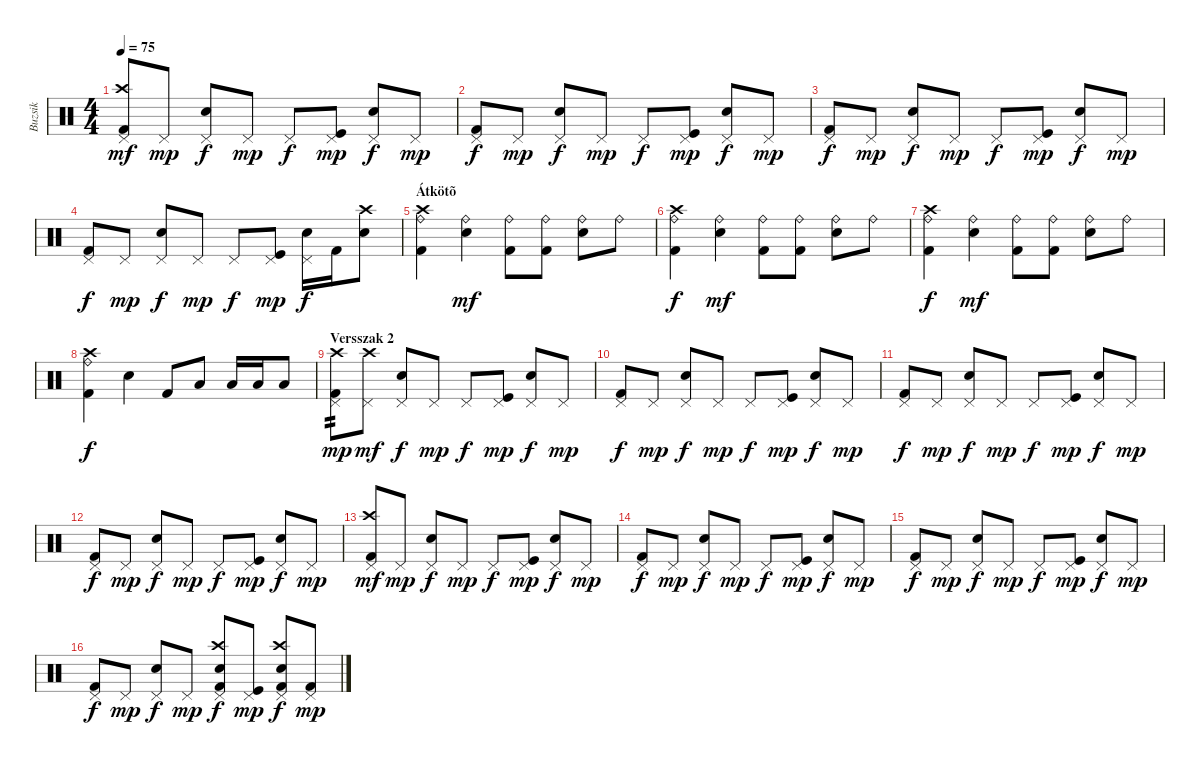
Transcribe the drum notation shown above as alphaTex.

\track ("Buzsik" "Buzsik") {instrument percussion}
\staff {score}
\articulation defaults
\ts (4 4)
\tempo 75
\clef neutral
\ks c
("Pedal Hi-Hat (hit)" "Crash high (hit)" "Kick (hit) 2").8{dy mf} "Pedal Hi-Hat (hit)".8{dy mp} ("Pedal Hi-Hat (hit)" "Snare (hit) 2").8{dy f} "Pedal Hi-Hat (hit)".8{dy mp} "Pedal Hi-Hat (hit)".8{dy f} ("Pedal Hi-Hat (hit)" "Kick (hit)").8{dy mp} ("Pedal Hi-Hat (hit)" "Snare (hit) 2").8{dy f} "Pedal Hi-Hat (hit)".8{dy mp} |
("Pedal Hi-Hat (hit)" "Kick (hit) 2").8{dy f} "Pedal Hi-Hat (hit)".8{dy mp} ("Pedal Hi-Hat (hit)" "Snare (hit) 2").8{dy f} "Pedal Hi-Hat (hit)".8{dy mp} "Pedal Hi-Hat (hit)".8{dy f} ("Pedal Hi-Hat (hit)" "Kick (hit)").8{dy mp} ("Pedal Hi-Hat (hit)" "Snare (hit) 2").8{dy f} "Pedal Hi-Hat (hit)".8{dy mp} |
("Pedal Hi-Hat (hit)" "Kick (hit) 2").8{dy f} "Pedal Hi-Hat (hit)".8{dy mp} ("Pedal Hi-Hat (hit)" "Snare (hit) 2").8{dy f} "Pedal Hi-Hat (hit)".8{dy mp} "Pedal Hi-Hat (hit)".8{dy f} ("Pedal Hi-Hat (hit)" "Kick (hit)").8{dy mp} ("Pedal Hi-Hat (hit)" "Snare (hit) 2").8{dy f} "Pedal Hi-Hat (hit)".8{dy mp} |
("Pedal Hi-Hat (hit)" "Kick (hit) 2").8{dy f} "Pedal Hi-Hat (hit)".8{dy mp} ("Pedal Hi-Hat (hit)" "Snare (hit) 2").8{dy f} "Pedal Hi-Hat (hit)".8{dy mp} "Pedal Hi-Hat (hit)".8{dy f} ("Pedal Hi-Hat (hit)" "Kick (hit)").8{dy mp} ("Pedal Hi-Hat (hit)" "Snare (hit) 2").16{dy f} "Kick (hit) 2".16 ("Crash high (hit)" "Snare (hit) 2").8 |
\section ("" "Átkötõ")
("Crash high (hit)" "Ride (bell)" "Kick (hit) 2").4 ("Ride (bell)" "Snare (hit) 2").4{dy mf} ("Ride (bell)" "Kick (hit) 2").8 ("Ride (bell)" "Kick (hit) 2").8 ("Ride (bell)" "Snare (hit) 2").8 "Ride (bell)".8 |
("Crash high (hit)" "Ride (bell)" "Kick (hit) 2").4{dy f} ("Ride (bell)" "Snare (hit) 2").4{dy mf} ("Ride (bell)" "Kick (hit) 2").8 ("Ride (bell)" "Kick (hit) 2").8 ("Ride (bell)" "Snare (hit) 2").8 "Ride (bell)".8 |
("Crash high (hit)" "Ride (bell)" "Kick (hit) 2").4{dy f} ("Ride (bell)" "Snare (hit) 2").4{dy mf} ("Ride (bell)" "Kick (hit) 2").8 ("Ride (bell)" "Kick (hit) 2").8 ("Ride (bell)" "Snare (hit) 2").8 "Ride (bell)".8 |
("Crash high (hit)" "Ride (bell)" "Kick (hit) 2").4{dy f} "Snare (hit) 2".4 "Kick (hit) 2".8 "Low Floor Tom (hit)".8 "Low Floor Tom (hit)".16 "Low Floor Tom (hit)".16 "Low Floor Tom (hit)".8 |
\section ("" "Versszak 2")
("Pedal Hi-Hat (hit)" "Crash high (hit)" "Kick (hit) 2").8{tp 2 dy mp} ("Pedal Hi-Hat (hit)" "Crash high (hit)").8{dy mf} ("Pedal Hi-Hat (hit)" "Snare (hit) 2").8{dy f} "Pedal Hi-Hat (hit)".8{dy mp} "Pedal Hi-Hat (hit)".8{dy f} ("Pedal Hi-Hat (hit)" "Kick (hit)").8{dy mp} ("Pedal Hi-Hat (hit)" "Snare (hit) 2").8{dy f} "Pedal Hi-Hat (hit)".8{dy mp} |
("Pedal Hi-Hat (hit)" "Kick (hit) 2").8{dy f} "Pedal Hi-Hat (hit)".8{dy mp} ("Pedal Hi-Hat (hit)" "Snare (hit) 2").8{dy f} "Pedal Hi-Hat (hit)".8{dy mp} "Pedal Hi-Hat (hit)".8{dy f} ("Pedal Hi-Hat (hit)" "Kick (hit)").8{dy mp} ("Pedal Hi-Hat (hit)" "Snare (hit) 2").8{dy f} "Pedal Hi-Hat (hit)".8{dy mp} |
("Pedal Hi-Hat (hit)" "Kick (hit) 2").8{dy f} "Pedal Hi-Hat (hit)".8{dy mp} ("Pedal Hi-Hat (hit)" "Snare (hit) 2").8{dy f} "Pedal Hi-Hat (hit)".8{dy mp} "Pedal Hi-Hat (hit)".8{dy f} ("Pedal Hi-Hat (hit)" "Kick (hit)").8{dy mp} ("Pedal Hi-Hat (hit)" "Snare (hit) 2").8{dy f} "Pedal Hi-Hat (hit)".8{dy mp} |
("Pedal Hi-Hat (hit)" "Kick (hit) 2").8{dy f} "Pedal Hi-Hat (hit)".8{dy mp} ("Pedal Hi-Hat (hit)" "Snare (hit) 2").8{dy f} "Pedal Hi-Hat (hit)".8{dy mp} "Pedal Hi-Hat (hit)".8{dy f} ("Pedal Hi-Hat (hit)" "Kick (hit)").8{dy mp} ("Pedal Hi-Hat (hit)" "Snare (hit) 2").8{dy f} "Pedal Hi-Hat (hit)".8{dy mp} |
("Pedal Hi-Hat (hit)" "Crash high (hit)" "Kick (hit) 2").8{dy mf} "Pedal Hi-Hat (hit)".8{dy mp} ("Pedal Hi-Hat (hit)" "Snare (hit) 2").8{dy f} "Pedal Hi-Hat (hit)".8{dy mp} "Pedal Hi-Hat (hit)".8{dy f} ("Pedal Hi-Hat (hit)" "Kick (hit)").8{dy mp} ("Pedal Hi-Hat (hit)" "Snare (hit) 2").8{dy f} "Pedal Hi-Hat (hit)".8{dy mp} |
("Pedal Hi-Hat (hit)" "Kick (hit) 2").8{dy f} "Pedal Hi-Hat (hit)".8{dy mp} ("Pedal Hi-Hat (hit)" "Snare (hit) 2").8{dy f} "Pedal Hi-Hat (hit)".8{dy mp} "Pedal Hi-Hat (hit)".8{dy f} ("Pedal Hi-Hat (hit)" "Kick (hit)").8{dy mp} ("Pedal Hi-Hat (hit)" "Snare (hit) 2").8{dy f} "Pedal Hi-Hat (hit)".8{dy mp} |
("Pedal Hi-Hat (hit)" "Kick (hit) 2").8{dy f} "Pedal Hi-Hat (hit)".8{dy mp} ("Pedal Hi-Hat (hit)" "Snare (hit) 2").8{dy f} "Pedal Hi-Hat (hit)".8{dy mp} "Pedal Hi-Hat (hit)".8{dy f} ("Pedal Hi-Hat (hit)" "Kick (hit)").8{dy mp} ("Pedal Hi-Hat (hit)" "Snare (hit) 2").8{dy f} "Pedal Hi-Hat (hit)".8{dy mp} |
("Pedal Hi-Hat (hit)" "Kick (hit) 2").8{dy f} "Pedal Hi-Hat (hit)".8{dy mp} ("Pedal Hi-Hat (hit)" "Snare (hit) 2").8{dy f} "Pedal Hi-Hat (hit)".8{dy mp} ("Pedal Hi-Hat (hit)" "Crash high (hit)" "Snare (hit) 2" "Kick (hit) 2").8{dy f} ("Pedal Hi-Hat (hit)" "Kick (hit)").8{dy mp} ("Pedal Hi-Hat (hit)" "Crash high (hit)" "Snare (hit) 2" "Kick (hit) 2").8{dy f} ("Pedal Hi-Hat (hit)" "Kick (hit) 2").8{dy mp}
